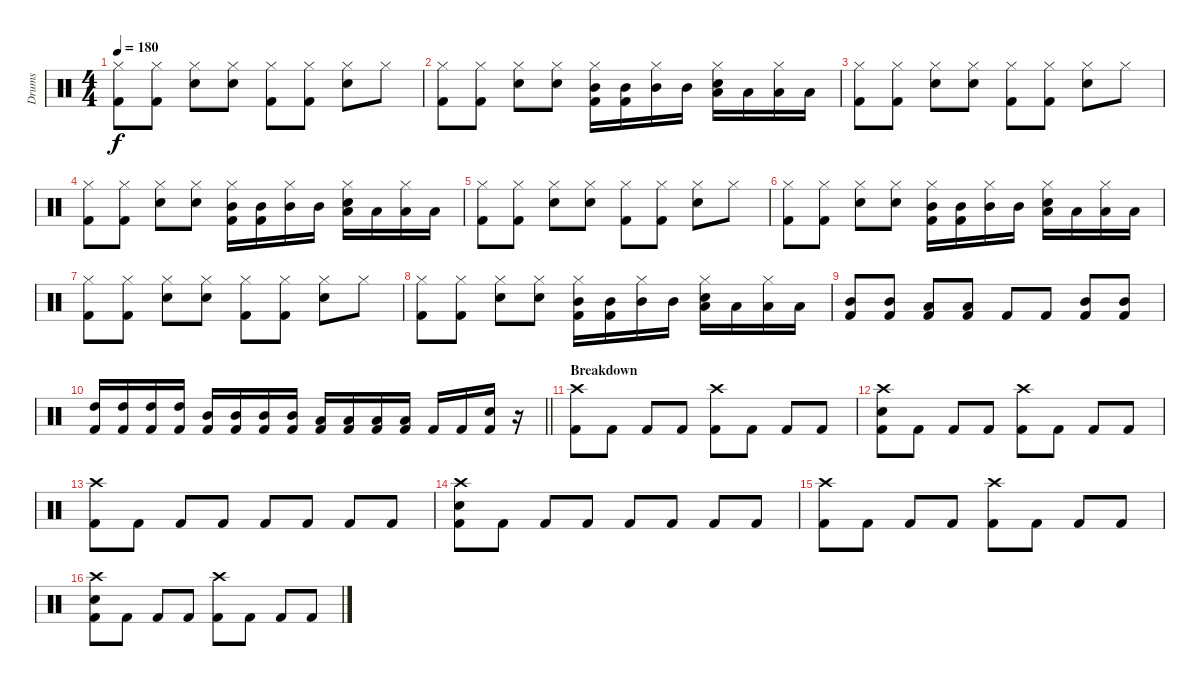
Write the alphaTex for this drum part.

\track ("Drums" "Drums") {instrument percussion}
\staff {score}
\articulation defaults
\ts (4 4)
\tempo 180
\clef neutral
\ks c
("Hi-Hat (closed)" "Kick (hit) 2").8{dy f} ("Hi-Hat (closed)" "Kick (hit) 2").8 ("Hi-Hat (closed)" "Electric Snare (hit)").8 ("Hi-Hat (closed)" "Electric Snare (hit)").8 ("Hi-Hat (closed)" "Kick (hit) 2").8 ("Hi-Hat (closed)" "Kick (hit) 2").8 ("Hi-Hat (closed)" "Electric Snare (hit)").8 "Hi-Hat (closed)".8 |
("Hi-Hat (closed)" "Kick (hit) 2").8 ("Hi-Hat (closed)" "Kick (hit) 2").8 ("Hi-Hat (closed)" "Electric Snare (hit)").8 ("Hi-Hat (closed)" "Electric Snare (hit)").8 ("Hi-Hat (closed)" "Mid Tom (hit)" "Kick (hit) 2").16 ("Mid Tom (hit)" "Kick (hit) 2").16 ("Hi-Hat (closed)" "Mid Tom (hit)").16 "Mid Tom (hit)".16 ("Hi-Hat (closed)" "Low Tom (hit)" "Electric Snare (hit)").16 "Low Tom (hit)".16 ("Hi-Hat (closed)" "Low Tom (hit)").16 "Low Tom (hit)".16 |
("Hi-Hat (closed)" "Kick (hit) 2").8 ("Hi-Hat (closed)" "Kick (hit) 2").8 ("Hi-Hat (closed)" "Electric Snare (hit)").8 ("Hi-Hat (closed)" "Electric Snare (hit)").8 ("Hi-Hat (closed)" "Kick (hit) 2").8 ("Hi-Hat (closed)" "Kick (hit) 2").8 ("Hi-Hat (closed)" "Electric Snare (hit)").8 "Hi-Hat (closed)".8 |
("Hi-Hat (closed)" "Kick (hit) 2").8 ("Hi-Hat (closed)" "Kick (hit) 2").8 ("Hi-Hat (closed)" "Electric Snare (hit)").8 ("Hi-Hat (closed)" "Electric Snare (hit)").8 ("Hi-Hat (closed)" "Mid Tom (hit)" "Kick (hit) 2").16 ("Mid Tom (hit)" "Kick (hit) 2").16 ("Hi-Hat (closed)" "Mid Tom (hit)").16 "Mid Tom (hit)".16 ("Hi-Hat (closed)" "Low Tom (hit)" "Electric Snare (hit)").16 "Low Tom (hit)".16 ("Hi-Hat (closed)" "Low Tom (hit)").16 "Low Tom (hit)".16 |
("Hi-Hat (closed)" "Kick (hit) 2").8 ("Hi-Hat (closed)" "Kick (hit) 2").8 ("Hi-Hat (closed)" "Electric Snare (hit)").8 ("Hi-Hat (closed)" "Electric Snare (hit)").8 ("Hi-Hat (closed)" "Kick (hit) 2").8 ("Hi-Hat (closed)" "Kick (hit) 2").8 ("Hi-Hat (closed)" "Electric Snare (hit)").8 "Hi-Hat (closed)".8 |
("Hi-Hat (closed)" "Kick (hit) 2").8 ("Hi-Hat (closed)" "Kick (hit) 2").8 ("Hi-Hat (closed)" "Electric Snare (hit)").8 ("Hi-Hat (closed)" "Electric Snare (hit)").8 ("Hi-Hat (closed)" "Mid Tom (hit)" "Kick (hit) 2").16 ("Mid Tom (hit)" "Kick (hit) 2").16 ("Hi-Hat (closed)" "Mid Tom (hit)").16 "Mid Tom (hit)".16 ("Hi-Hat (closed)" "Low Tom (hit)" "Electric Snare (hit)").16 "Low Tom (hit)".16 ("Hi-Hat (closed)" "Low Tom (hit)").16 "Low Tom (hit)".16 |
("Hi-Hat (closed)" "Kick (hit) 2").8 ("Hi-Hat (closed)" "Kick (hit) 2").8 ("Hi-Hat (closed)" "Electric Snare (hit)").8 ("Hi-Hat (closed)" "Electric Snare (hit)").8 ("Hi-Hat (closed)" "Kick (hit) 2").8 ("Hi-Hat (closed)" "Kick (hit) 2").8 ("Hi-Hat (closed)" "Electric Snare (hit)").8 "Hi-Hat (closed)".8 |
("Hi-Hat (closed)" "Kick (hit) 2").8 ("Hi-Hat (closed)" "Kick (hit) 2").8 ("Hi-Hat (closed)" "Electric Snare (hit)").8 ("Hi-Hat (closed)" "Electric Snare (hit)").8 ("Hi-Hat (closed)" "Mid Tom (hit)" "Kick (hit) 2").16 ("Mid Tom (hit)" "Kick (hit) 2").16 ("Hi-Hat (closed)" "Mid Tom (hit)").16 "Mid Tom (hit)".16 ("Hi-Hat (closed)" "Low Tom (hit)" "Electric Snare (hit)").16 "Low Tom (hit)".16 ("Hi-Hat (closed)" "Low Tom (hit)").16 "Low Tom (hit)".16 |
("Mid Tom (hit)" "Kick (hit) 2").8 ("Mid Tom (hit)" "Kick (hit) 2").8 ("Low Tom (hit)" "Kick (hit) 2").8 ("Low Tom (hit)" "Kick (hit) 2").8 "Kick (hit) 2".8 "Kick (hit) 2".8 ("Mid Tom (hit)" "Kick (hit) 2").8 ("Mid Tom (hit)" "Kick (hit) 2").8 |
\barLineRight lightlight
("High Tom (hit)" "Kick (hit) 2").16 ("High Tom (hit)" "Kick (hit) 2").16 ("High Tom (hit)" "Kick (hit) 2").16 ("High Tom (hit)" "Kick (hit) 2").16 ("Mid Tom (hit)" "Kick (hit) 2").16 ("Mid Tom (hit)" "Kick (hit) 2").16 ("Mid Tom (hit)" "Kick (hit) 2").16 ("Mid Tom (hit)" "Kick (hit) 2").16 ("Low Tom (hit)" "Kick (hit) 2").16 ("Low Tom (hit)" "Kick (hit) 2").16 ("Low Tom (hit)" "Kick (hit) 2").16 ("Low Tom (hit)" "Kick (hit) 2").16 "Kick (hit) 2".16 "Kick (hit) 2".16 ("Electric Snare (hit)" "Kick (hit) 2").16 r.16 |
\section ("" "Breakdown")
("Crash high (hit)" "Kick (hit) 2").8 "Kick (hit) 2".8 "Kick (hit) 2".8 "Kick (hit) 2".8 ("Crash high (hit)" "Kick (hit) 2").8 "Kick (hit) 2".8 "Kick (hit) 2".8 "Kick (hit) 2".8 |
("Crash high (hit)" "Electric Snare (hit)" "Kick (hit) 2").8 "Kick (hit) 2".8 "Kick (hit) 2".8 "Kick (hit) 2".8 ("Crash high (hit)" "Kick (hit) 2").8 "Kick (hit) 2".8 "Kick (hit) 2".8 "Kick (hit) 2".8 |
("Crash high (hit)" "Kick (hit) 2").8 "Kick (hit) 2".8 "Kick (hit) 2".8 "Kick (hit) 2".8 "Kick (hit) 2".8 "Kick (hit) 2".8 "Kick (hit) 2".8 "Kick (hit) 2".8 |
("Crash high (hit)" "Electric Snare (hit)" "Kick (hit) 2").8 "Kick (hit) 2".8 "Kick (hit) 2".8 "Kick (hit) 2".8 "Kick (hit) 2".8 "Kick (hit) 2".8 "Kick (hit) 2".8 "Kick (hit) 2".8 |
("Crash high (hit)" "Kick (hit) 2").8 "Kick (hit) 2".8 "Kick (hit) 2".8 "Kick (hit) 2".8 ("Crash high (hit)" "Kick (hit) 2").8 "Kick (hit) 2".8 "Kick (hit) 2".8 "Kick (hit) 2".8 |
("Crash high (hit)" "Electric Snare (hit)" "Kick (hit) 2").8 "Kick (hit) 2".8 "Kick (hit) 2".8 "Kick (hit) 2".8 ("Crash high (hit)" "Kick (hit) 2").8 "Kick (hit) 2".8 "Kick (hit) 2".8 "Kick (hit) 2".8
